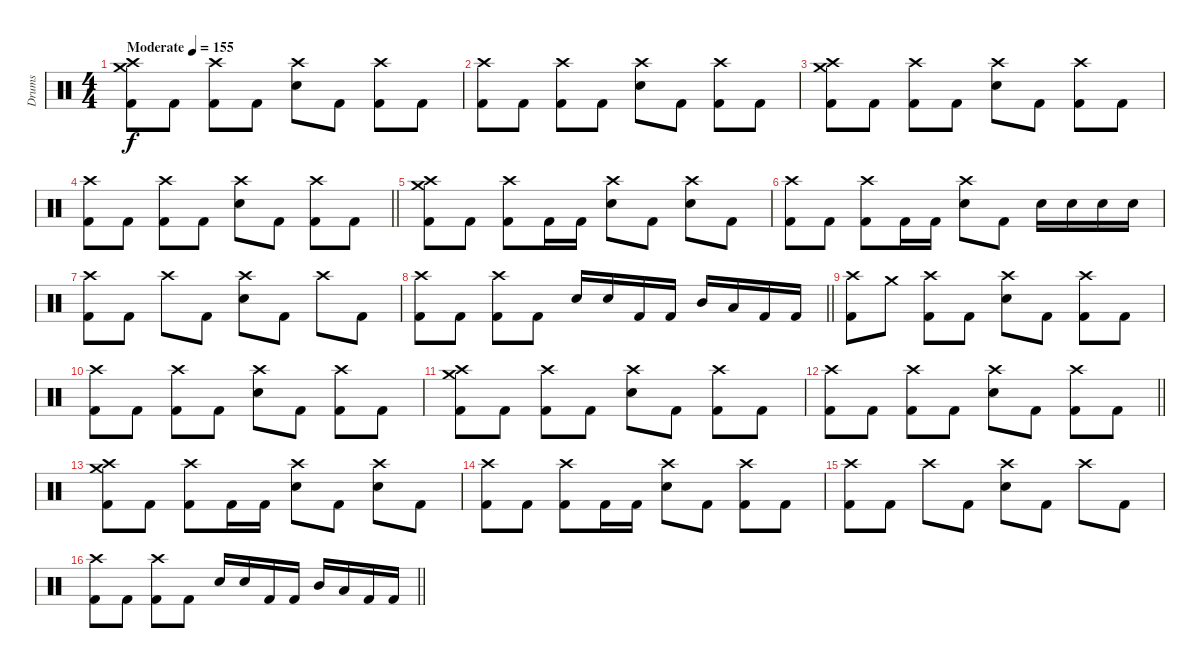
\track ("Drums" "Drums") {instrument percussion}
\staff {score}
\articulation defaults
\ts (4 4)
\tempo (155 "Moderate")
\clef neutral
\ks c
("Crash high (hit)" "Crash medium (hit)" "Kick (hit) 2").8{dy f} "Kick (hit) 2".8 ("Crash high (hit)" "Kick (hit) 2").8 "Kick (hit) 2".8 ("Crash high (hit)" "Electric Snare (hit)").8 "Kick (hit) 2".8 ("Crash high (hit)" "Kick (hit) 2").8 "Kick (hit) 2".8 |
("Crash high (hit)" "Kick (hit) 2").8 "Kick (hit) 2".8 ("Crash high (hit)" "Kick (hit) 2").8 "Kick (hit) 2".8 ("Crash high (hit)" "Electric Snare (hit)").8 "Kick (hit) 2".8 ("Crash high (hit)" "Kick (hit) 2").8 "Kick (hit) 2".8 |
("Crash high (hit)" "Crash medium (hit)" "Kick (hit) 2").8 "Kick (hit) 2".8 ("Crash high (hit)" "Kick (hit) 2").8 "Kick (hit) 2".8 ("Crash high (hit)" "Electric Snare (hit)").8 "Kick (hit) 2".8 ("Crash high (hit)" "Kick (hit) 2").8 "Kick (hit) 2".8 |
\barLineRight lightlight
("Crash high (hit)" "Kick (hit) 2").8 "Kick (hit) 2".8 ("Crash high (hit)" "Kick (hit) 2").8 "Kick (hit) 2".8 ("Crash high (hit)" "Electric Snare (hit)").8 "Kick (hit) 2".8 ("Crash high (hit)" "Kick (hit) 2").8 "Kick (hit) 2".8 |
("Crash high (hit)" "Crash medium (hit)" "Kick (hit) 2").8 "Kick (hit) 2".8 ("Crash high (hit)" "Kick (hit) 2").8 "Kick (hit) 2".16 "Kick (hit) 2".16 ("Crash high (hit)" "Electric Snare (hit)").8 "Kick (hit) 2".8 ("Crash high (hit)" "Electric Snare (hit)").8 "Kick (hit) 2".8 |
("Crash high (hit)" "Kick (hit) 2").8 "Kick (hit) 2".8 ("Crash high (hit)" "Kick (hit) 2").8 "Kick (hit) 2".16 "Kick (hit) 2".16 ("Crash high (hit)" "Electric Snare (hit)").8 "Kick (hit) 2".8 "Electric Snare (hit)".16 "Electric Snare (hit)".16 "Electric Snare (hit)".16 "Electric Snare (hit)".16 |
("Crash high (hit)" "Kick (hit) 2").8 "Kick (hit) 2".8 "Crash high (hit)".8 "Kick (hit) 2".8 ("Crash high (hit)" "Electric Snare (hit)").8 "Kick (hit) 2".8 "Crash high (hit)".8 "Kick (hit) 2".8 |
\barLineRight lightlight
("Crash high (hit)" "Kick (hit) 2").8 "Kick (hit) 2".8 ("Crash high (hit)" "Kick (hit) 2").8 "Kick (hit) 2".8 "Electric Snare (hit)".16 "Electric Snare (hit)".16 "Kick (hit) 2".16 "Kick (hit) 2".16 "Mid Tom (hit)".16 "Low Tom (hit)".16 "Kick (hit) 2".16 "Kick (hit) 2".16 |
("Crash high (hit)" "Kick (hit) 2").8 "Crash medium (hit)".8 ("Crash high (hit)" "Kick (hit) 2").8 "Kick (hit) 2".8 ("Crash high (hit)" "Electric Snare (hit)").8 "Kick (hit) 2".8 ("Crash high (hit)" "Kick (hit) 2").8 "Kick (hit) 2".8 |
("Crash high (hit)" "Kick (hit) 2").8 "Kick (hit) 2".8 ("Crash high (hit)" "Kick (hit) 2").8 "Kick (hit) 2".8 ("Crash high (hit)" "Electric Snare (hit)").8 "Kick (hit) 2".8 ("Crash high (hit)" "Kick (hit) 2").8 "Kick (hit) 2".8 |
("Crash high (hit)" "Crash medium (hit)" "Kick (hit) 2").8 "Kick (hit) 2".8 ("Crash high (hit)" "Kick (hit) 2").8 "Kick (hit) 2".8 ("Crash high (hit)" "Electric Snare (hit)").8 "Kick (hit) 2".8 ("Crash high (hit)" "Kick (hit) 2").8 "Kick (hit) 2".8 |
\barLineRight lightlight
("Crash high (hit)" "Kick (hit) 2").8 "Kick (hit) 2".8 ("Crash high (hit)" "Kick (hit) 2").8 "Kick (hit) 2".8 ("Crash high (hit)" "Electric Snare (hit)").8 "Kick (hit) 2".8 ("Crash high (hit)" "Kick (hit) 2").8 "Kick (hit) 2".8 |
("Crash high (hit)" "Crash medium (hit)" "Kick (hit) 2").8 "Kick (hit) 2".8 ("Crash high (hit)" "Kick (hit) 2").8 "Kick (hit) 2".16 "Kick (hit) 2".16 ("Crash high (hit)" "Electric Snare (hit)").8 "Kick (hit) 2".8 ("Crash high (hit)" "Electric Snare (hit)").8 "Kick (hit) 2".8 |
("Crash high (hit)" "Kick (hit) 2").8 "Kick (hit) 2".8 ("Crash high (hit)" "Kick (hit) 2").8 "Kick (hit) 2".16 "Kick (hit) 2".16 ("Crash high (hit)" "Electric Snare (hit)").8 "Kick (hit) 2".8 ("Crash high (hit)" "Kick (hit) 2").8 "Kick (hit) 2".8 |
("Crash high (hit)" "Kick (hit) 2").8 "Kick (hit) 2".8 "Crash high (hit)".8 "Kick (hit) 2".8 ("Crash high (hit)" "Electric Snare (hit)").8 "Kick (hit) 2".8 "Crash high (hit)".8 "Kick (hit) 2".8 |
\barLineRight lightlight
("Crash high (hit)" "Kick (hit) 2").8 "Kick (hit) 2".8 ("Crash high (hit)" "Kick (hit) 2").8 "Kick (hit) 2".8 "Electric Snare (hit)".16 "Electric Snare (hit)".16 "Kick (hit) 2".16 "Kick (hit) 2".16 "Mid Tom (hit)".16 "Low Tom (hit)".16 "Kick (hit) 2".16 "Kick (hit) 2".16
